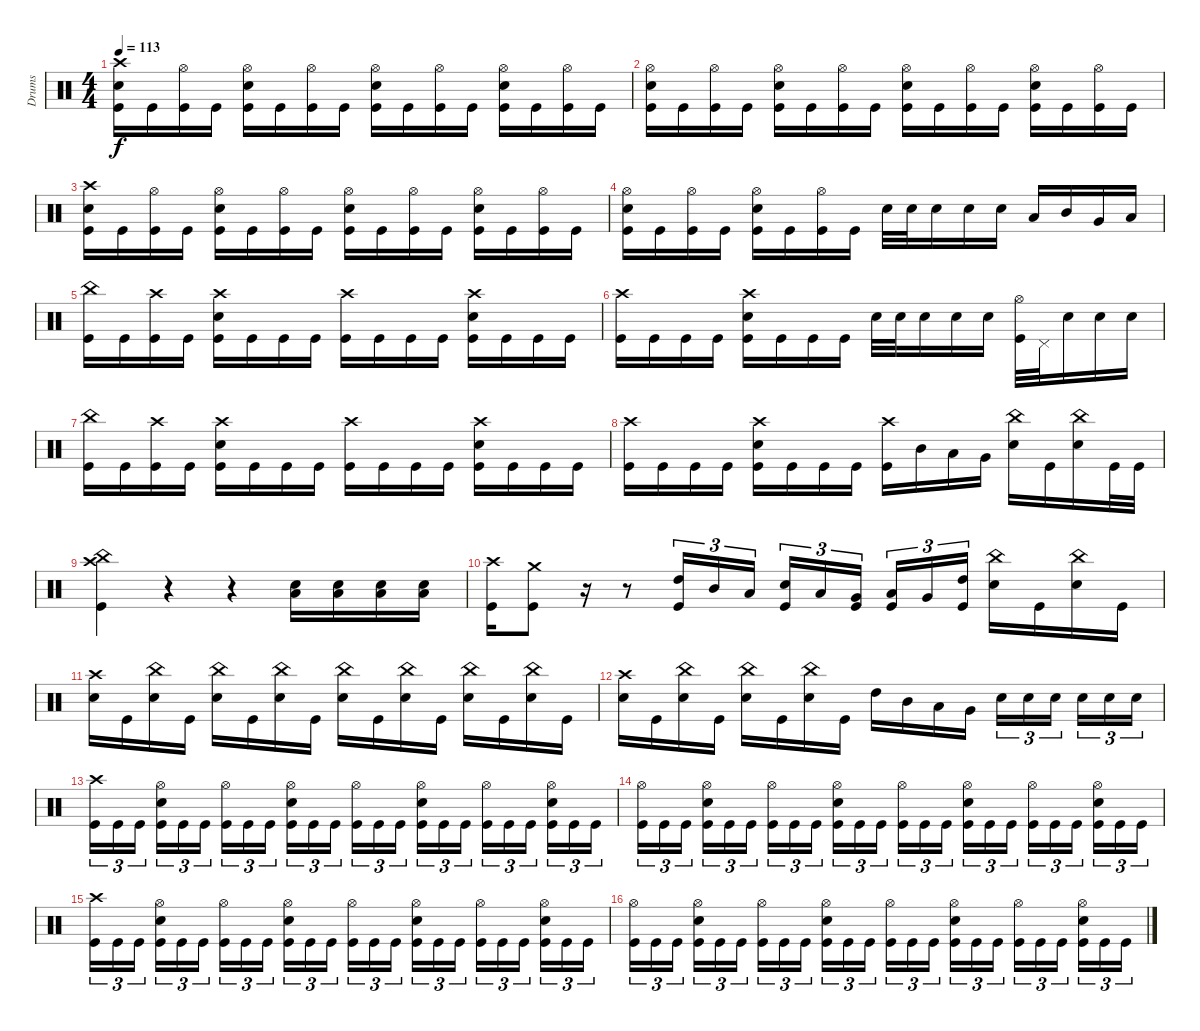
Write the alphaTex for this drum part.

\track ("Drums" "Drums") {instrument percussion}
\staff {score}
\articulation defaults
\ts (4 4)
\tempo 113
\clef neutral
\ks c
("Crash high (hit)" "Electric Snare (hit)" "Kick (hit)").16{dy f} "Kick (hit)".16 ("Hi-Hat (open)" "Kick (hit)").16 "Kick (hit)".16 ("Hi-Hat (open)" "Electric Snare (hit)" "Kick (hit)").16 "Kick (hit)".16 ("Hi-Hat (open)" "Kick (hit)").16 "Kick (hit)".16 ("Hi-Hat (open)" "Electric Snare (hit)" "Kick (hit)").16 "Kick (hit)".16 ("Hi-Hat (open)" "Kick (hit)").16 "Kick (hit)".16 ("Hi-Hat (open)" "Electric Snare (hit)" "Kick (hit)").16 "Kick (hit)".16 ("Hi-Hat (open)" "Kick (hit)").16 "Kick (hit)".16 |
("Hi-Hat (open)" "Electric Snare (hit)" "Kick (hit)").16 "Kick (hit)".16 ("Hi-Hat (open)" "Kick (hit)").16 "Kick (hit)".16 ("Hi-Hat (open)" "Electric Snare (hit)" "Kick (hit)").16 "Kick (hit)".16 ("Hi-Hat (open)" "Kick (hit)").16 "Kick (hit)".16 ("Hi-Hat (open)" "Electric Snare (hit)" "Kick (hit)").16 "Kick (hit)".16 ("Hi-Hat (open)" "Kick (hit)").16 "Kick (hit)".16 ("Hi-Hat (open)" "Electric Snare (hit)" "Kick (hit)").16 "Kick (hit)".16 ("Hi-Hat (open)" "Kick (hit)").16 "Kick (hit)".16 |
("Crash high (hit)" "Electric Snare (hit)" "Kick (hit)").16 "Kick (hit)".16 ("Hi-Hat (open)" "Kick (hit)").16 "Kick (hit)".16 ("Hi-Hat (open)" "Electric Snare (hit)" "Kick (hit)").16 "Kick (hit)".16 ("Hi-Hat (open)" "Kick (hit)").16 "Kick (hit)".16 ("Hi-Hat (open)" "Electric Snare (hit)" "Kick (hit)").16 "Kick (hit)".16 ("Hi-Hat (open)" "Kick (hit)").16 "Kick (hit)".16 ("Hi-Hat (open)" "Electric Snare (hit)" "Kick (hit)").16 "Kick (hit)".16 ("Hi-Hat (open)" "Kick (hit)").16 "Kick (hit)".16 |
("Hi-Hat (open)" "Electric Snare (hit)" "Kick (hit)").16 "Kick (hit)".16 ("Hi-Hat (open)" "Kick (hit)").16 "Kick (hit)".16 ("Hi-Hat (open)" "Electric Snare (hit)" "Kick (hit)").16 "Kick (hit)".16 ("Hi-Hat (open)" "Kick (hit)").16 "Kick (hit)".16 "Electric Snare (hit)".32 "Electric Snare (hit)".32 "Electric Snare (hit)".16 "Electric Snare (hit)".16 "Electric Snare (hit)".16 "Low Tom (hit)".16 "Mid Tom (hit)".16 "Very Low Tom (hit)".16 "Low Floor Tom (hit)".16 |
("China (hit)" "Kick (hit)").16 "Kick (hit)".16 ("Crash high (hit)" "Kick (hit)").16 "Kick (hit)".16 ("Crash high (hit)" "Electric Snare (hit)" "Kick (hit)").16 "Kick (hit)".16 "Kick (hit)".16 "Kick (hit)".16 ("Crash high (hit)" "Kick (hit)").16 "Kick (hit)".16 "Kick (hit)".16 "Kick (hit)".16 ("Crash high (hit)" "Electric Snare (hit)" "Kick (hit)").16 "Kick (hit)".16 "Kick (hit)".16 "Kick (hit)".16 |
("Crash high (hit)" "Kick (hit)").16 "Kick (hit)".16 "Kick (hit)".16 "Kick (hit)".16 ("Crash high (hit)" "Electric Snare (hit)" "Kick (hit)").16 "Kick (hit)".16 "Kick (hit)".16 "Kick (hit)".16 "Electric Snare (hit)".32 "Electric Snare (hit)".32 "Electric Snare (hit)".16 "Electric Snare (hit)".16 "Electric Snare (hit)".16 ("Hi-Hat (open)" "Kick (hit)").32 "Pedal Hi-Hat (hit)".32 "Electric Snare (hit)".16 "Electric Snare (hit)".16 "Electric Snare (hit)".16 |
("China (hit)" "Kick (hit)").16 "Kick (hit)".16 ("Crash high (hit)" "Kick (hit)").16 "Kick (hit)".16 ("Crash high (hit)" "Electric Snare (hit)" "Kick (hit)").16 "Kick (hit)".16 "Kick (hit)".16 "Kick (hit)".16 ("Crash high (hit)" "Kick (hit)").16 "Kick (hit)".16 "Kick (hit)".16 "Kick (hit)".16 ("Crash high (hit)" "Electric Snare (hit)" "Kick (hit)").16 "Kick (hit)".16 "Kick (hit)".16 "Kick (hit)".16 |
("Crash high (hit)" "Kick (hit)").16 "Kick (hit)".16 "Kick (hit)".16 "Kick (hit)".16 ("Crash high (hit)" "Electric Snare (hit)" "Kick (hit)").16 "Kick (hit)".16 "Kick (hit)".16 "Kick (hit)".16 ("Crash high (hit)" "Kick (hit)").16 "Mid Tom (hit)".16 "Low Tom (hit)".16 "Very Low Tom (hit)".16 ("China (hit)" "Electric Snare (hit)").16 "Kick (hit)".16 ("China (hit)" "Electric Snare (hit)").16 "Kick (hit)".32 "Kick (hit)".32 |
("China (hit)" "Crash high (hit)" "Kick (hit)").4 r.4 r.4 ("Low Tom (hit)" "Electric Snare (hit)").16 ("Low Tom (hit)" "Electric Snare (hit)").16 ("Low Tom (hit)" "Electric Snare (hit)").16 ("Low Tom (hit)" "Electric Snare (hit)").16 |
("Crash high (hit)" "Kick (hit)").16 ("Crash medium (hit)" "Kick (hit)").8 r.16 r.8 ("High Tom (hit)" "Kick (hit)").16{tu (3 2)} "Mid Tom (hit)".16{tu (3 2)} "Low Tom (hit)".16{tu (3 2)} ("Electric Snare (hit)" "Kick (hit)").16{tu (3 2)} "Low Tom (hit)".16{tu (3 2)} ("Very Low Tom (hit)" "Kick (hit)").16{tu (3 2) beam splitsecondary} ("Low Floor Tom (hit)" "Kick (hit)").16{tu (3 2)} "Very Low Tom (hit)".16{tu (3 2)} ("High Tom (hit)" "Kick (hit)").16{tu (3 2)} ("China (hit)" "Electric Snare (hit)").16 "Kick (hit)".16 ("China (hit)" "Electric Snare (hit)").16 "Kick (hit)".16 |
("Crash high (hit)" "Electric Snare (hit)").16 "Kick (hit)".16 ("China (hit)" "Electric Snare (hit)").16 "Kick (hit)".16 ("China (hit)" "Electric Snare (hit)").16 "Kick (hit)".16 ("China (hit)" "Electric Snare (hit)").16 "Kick (hit)".16 ("China (hit)" "Electric Snare (hit)").16 "Kick (hit)".16 ("China (hit)" "Electric Snare (hit)").16 "Kick (hit)".16 ("China (hit)" "Electric Snare (hit)").16 "Kick (hit)".16 ("China (hit)" "Electric Snare (hit)").16 "Kick (hit)".16 |
("Crash high (hit)" "Electric Snare (hit)").16 "Kick (hit)".16 ("China (hit)" "Electric Snare (hit)").16 "Kick (hit)".16 ("China (hit)" "Electric Snare (hit)").16 "Kick (hit)".16 ("China (hit)" "Electric Snare (hit)").16 "Kick (hit)".16 "High Tom (hit)".16 "Mid Tom (hit)".16 "Low Tom (hit)".16 "Very Low Tom (hit)".16 "Electric Snare (hit)".16{tu (3 2)} "Electric Snare (hit)".16{tu (3 2)} "Electric Snare (hit)".16{tu (3 2) beam splitsecondary} "Electric Snare (hit)".16{tu (3 2)} "Electric Snare (hit)".16{tu (3 2)} "Electric Snare (hit)".16{tu (3 2)} |
("Crash high (hit)" "Kick (hit)").16{tu (3 2)} "Kick (hit)".16{tu (3 2)} "Kick (hit)".16{tu (3 2) beam splitsecondary} ("Hi-Hat (open)" "Electric Snare (hit)" "Kick (hit)").16{tu (3 2)} "Kick (hit)".16{tu (3 2)} "Kick (hit)".16{tu (3 2)} ("Hi-Hat (open)" "Kick (hit)").16{tu (3 2)} "Kick (hit)".16{tu (3 2)} "Kick (hit)".16{tu (3 2) beam splitsecondary} ("Hi-Hat (open)" "Electric Snare (hit)" "Kick (hit)").16{tu (3 2)} "Kick (hit)".16{tu (3 2)} "Kick (hit)".16{tu (3 2)} ("Hi-Hat (open)" "Kick (hit)").16{tu (3 2)} "Kick (hit)".16{tu (3 2)} "Kick (hit)".16{tu (3 2) beam splitsecondary} ("Hi-Hat (open)" "Electric Snare (hit)" "Kick (hit)").16{tu (3 2)} "Kick (hit)".16{tu (3 2)} "Kick (hit)".16{tu (3 2)} ("Hi-Hat (open)" "Kick (hit)").16{tu (3 2)} "Kick (hit)".16{tu (3 2)} "Kick (hit)".16{tu (3 2) beam splitsecondary} ("Hi-Hat (open)" "Electric Snare (hit)" "Kick (hit)").16{tu (3 2)} "Kick (hit)".16{tu (3 2)} "Kick (hit)".16{tu (3 2)} |
("Hi-Hat (open)" "Kick (hit)").16{tu (3 2)} "Kick (hit)".16{tu (3 2)} "Kick (hit)".16{tu (3 2) beam splitsecondary} ("Hi-Hat (open)" "Electric Snare (hit)" "Kick (hit)").16{tu (3 2)} "Kick (hit)".16{tu (3 2)} "Kick (hit)".16{tu (3 2)} ("Hi-Hat (open)" "Kick (hit)").16{tu (3 2)} "Kick (hit)".16{tu (3 2)} "Kick (hit)".16{tu (3 2) beam splitsecondary} ("Hi-Hat (open)" "Electric Snare (hit)" "Kick (hit)").16{tu (3 2)} "Kick (hit)".16{tu (3 2)} "Kick (hit)".16{tu (3 2)} ("Hi-Hat (open)" "Kick (hit)").16{tu (3 2)} "Kick (hit)".16{tu (3 2)} "Kick (hit)".16{tu (3 2) beam splitsecondary} ("Hi-Hat (open)" "Electric Snare (hit)" "Kick (hit)").16{tu (3 2)} "Kick (hit)".16{tu (3 2)} "Kick (hit)".16{tu (3 2)} ("Hi-Hat (open)" "Kick (hit)").16{tu (3 2)} "Kick (hit)".16{tu (3 2)} "Kick (hit)".16{tu (3 2) beam splitsecondary} ("Hi-Hat (open)" "Electric Snare (hit)" "Kick (hit)").16{tu (3 2)} "Kick (hit)".16{tu (3 2)} "Kick (hit)".16{tu (3 2)} |
("Crash high (hit)" "Kick (hit)").16{tu (3 2)} "Kick (hit)".16{tu (3 2)} "Kick (hit)".16{tu (3 2) beam splitsecondary} ("Hi-Hat (open)" "Electric Snare (hit)" "Kick (hit)").16{tu (3 2)} "Kick (hit)".16{tu (3 2)} "Kick (hit)".16{tu (3 2)} ("Hi-Hat (open)" "Kick (hit)").16{tu (3 2)} "Kick (hit)".16{tu (3 2)} "Kick (hit)".16{tu (3 2) beam splitsecondary} ("Hi-Hat (open)" "Electric Snare (hit)" "Kick (hit)").16{tu (3 2)} "Kick (hit)".16{tu (3 2)} "Kick (hit)".16{tu (3 2)} ("Hi-Hat (open)" "Kick (hit)").16{tu (3 2)} "Kick (hit)".16{tu (3 2)} "Kick (hit)".16{tu (3 2) beam splitsecondary} ("Hi-Hat (open)" "Electric Snare (hit)" "Kick (hit)").16{tu (3 2)} "Kick (hit)".16{tu (3 2)} "Kick (hit)".16{tu (3 2)} ("Hi-Hat (open)" "Kick (hit)").16{tu (3 2)} "Kick (hit)".16{tu (3 2)} "Kick (hit)".16{tu (3 2) beam splitsecondary} ("Hi-Hat (open)" "Electric Snare (hit)" "Kick (hit)").16{tu (3 2)} "Kick (hit)".16{tu (3 2)} "Kick (hit)".16{tu (3 2)} |
("Hi-Hat (open)" "Kick (hit)").16{tu (3 2)} "Kick (hit)".16{tu (3 2)} "Kick (hit)".16{tu (3 2) beam splitsecondary} ("Hi-Hat (open)" "Electric Snare (hit)" "Kick (hit)").16{tu (3 2)} "Kick (hit)".16{tu (3 2)} "Kick (hit)".16{tu (3 2)} ("Hi-Hat (open)" "Kick (hit)").16{tu (3 2)} "Kick (hit)".16{tu (3 2)} "Kick (hit)".16{tu (3 2) beam splitsecondary} ("Hi-Hat (open)" "Electric Snare (hit)" "Kick (hit)").16{tu (3 2)} "Kick (hit)".16{tu (3 2)} "Kick (hit)".16{tu (3 2)} ("Hi-Hat (open)" "Kick (hit)").16{tu (3 2)} "Kick (hit)".16{tu (3 2)} "Kick (hit)".16{tu (3 2) beam splitsecondary} ("Hi-Hat (open)" "Electric Snare (hit)" "Kick (hit)").16{tu (3 2)} "Kick (hit)".16{tu (3 2)} "Kick (hit)".16{tu (3 2)} ("Hi-Hat (open)" "Kick (hit)").16{tu (3 2)} "Kick (hit)".16{tu (3 2)} "Kick (hit)".16{tu (3 2) beam splitsecondary} ("Hi-Hat (open)" "Electric Snare (hit)" "Kick (hit)").16{tu (3 2)} "Kick (hit)".16{tu (3 2)} "Kick (hit)".16{tu (3 2)}
